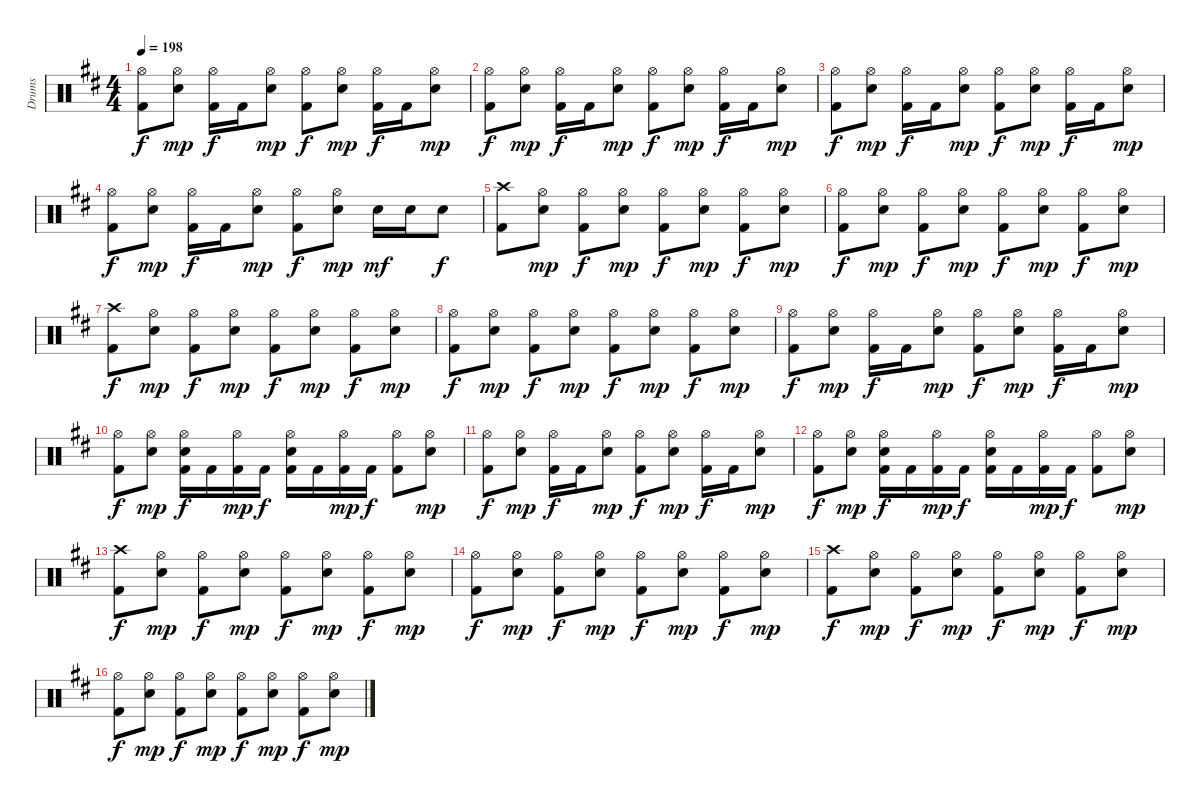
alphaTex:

\track ("Drums" "Drums") {instrument percussion}
\staff {score}
\articulation defaults
\ts (4 4)
\tempo 198
\clef neutral
\ks d
("Hi-Hat (open)" "Kick (hit) 2").8{dy f} ("Hi-Hat (open)" "Snare (hit) 2").8{dy mp} ("Hi-Hat (open)" "Kick (hit) 2").16{dy f} "Kick (hit) 2".16 ("Hi-Hat (open)" "Snare (hit) 2").8{dy mp} ("Hi-Hat (open)" "Kick (hit) 2").8{dy f} ("Hi-Hat (open)" "Snare (hit) 2").8{dy mp} ("Hi-Hat (open)" "Kick (hit) 2").16{dy f} "Kick (hit) 2".16 ("Hi-Hat (open)" "Snare (hit) 2").8{dy mp} |
("Hi-Hat (open)" "Kick (hit) 2").8{dy f} ("Hi-Hat (open)" "Snare (hit) 2").8{dy mp} ("Hi-Hat (open)" "Kick (hit) 2").16{dy f} "Kick (hit) 2".16 ("Hi-Hat (open)" "Snare (hit) 2").8{dy mp} ("Hi-Hat (open)" "Kick (hit) 2").8{dy f} ("Hi-Hat (open)" "Snare (hit) 2").8{dy mp} ("Hi-Hat (open)" "Kick (hit) 2").16{dy f} "Kick (hit) 2".16 ("Hi-Hat (open)" "Snare (hit) 2").8{dy mp} |
("Hi-Hat (open)" "Kick (hit) 2").8{dy f} ("Hi-Hat (open)" "Snare (hit) 2").8{dy mp} ("Hi-Hat (open)" "Kick (hit) 2").16{dy f} "Kick (hit) 2".16 ("Hi-Hat (open)" "Snare (hit) 2").8{dy mp} ("Hi-Hat (open)" "Kick (hit) 2").8{dy f} ("Hi-Hat (open)" "Snare (hit) 2").8{dy mp} ("Hi-Hat (open)" "Kick (hit) 2").16{dy f} "Kick (hit) 2".16 ("Hi-Hat (open)" "Snare (hit) 2").8{dy mp} |
("Hi-Hat (open)" "Kick (hit) 2").8{dy f} ("Hi-Hat (open)" "Snare (hit) 2").8{dy mp} ("Hi-Hat (open)" "Kick (hit) 2").16{dy f} "Kick (hit) 2".16 ("Hi-Hat (open)" "Snare (hit) 2").8{dy mp} ("Hi-Hat (open)" "Kick (hit) 2").8{dy f} ("Hi-Hat (open)" "Snare (hit) 2").8{dy mp} "Snare (hit) 2".16{dy mf} "Snare (hit) 2".16 "Snare (hit) 2".8{dy f} |
("Crash high (hit)" "Kick (hit) 2").8 ("Hi-Hat (open)" "Snare (hit) 2").8{dy mp} ("Hi-Hat (open)" "Kick (hit) 2").8{dy f} ("Hi-Hat (open)" "Snare (hit) 2").8{dy mp} ("Hi-Hat (open)" "Kick (hit) 2").8{dy f} ("Hi-Hat (open)" "Snare (hit) 2").8{dy mp} ("Hi-Hat (open)" "Kick (hit) 2").8{dy f} ("Hi-Hat (open)" "Snare (hit) 2").8{dy mp} |
("Hi-Hat (open)" "Kick (hit) 2").8{dy f} ("Hi-Hat (open)" "Snare (hit) 2").8{dy mp} ("Hi-Hat (open)" "Kick (hit) 2").8{dy f} ("Hi-Hat (open)" "Snare (hit) 2").8{dy mp} ("Hi-Hat (open)" "Kick (hit) 2").8{dy f} ("Hi-Hat (open)" "Snare (hit) 2").8{dy mp} ("Hi-Hat (open)" "Kick (hit) 2").8{dy f} ("Hi-Hat (open)" "Snare (hit) 2").8{dy mp} |
("Crash high (hit)" "Kick (hit) 2").8{dy f} ("Hi-Hat (open)" "Snare (hit) 2").8{dy mp} ("Hi-Hat (open)" "Kick (hit) 2").8{dy f} ("Hi-Hat (open)" "Snare (hit) 2").8{dy mp} ("Hi-Hat (open)" "Kick (hit) 2").8{dy f} ("Hi-Hat (open)" "Snare (hit) 2").8{dy mp} ("Hi-Hat (open)" "Kick (hit) 2").8{dy f} ("Hi-Hat (open)" "Snare (hit) 2").8{dy mp} |
("Hi-Hat (open)" "Kick (hit) 2").8{dy f} ("Hi-Hat (open)" "Snare (hit) 2").8{dy mp} ("Hi-Hat (open)" "Kick (hit) 2").8{dy f} ("Hi-Hat (open)" "Snare (hit) 2").8{dy mp} ("Hi-Hat (open)" "Kick (hit) 2").8{dy f} ("Hi-Hat (open)" "Snare (hit) 2").8{dy mp} ("Hi-Hat (open)" "Kick (hit) 2").8{dy f} ("Hi-Hat (open)" "Snare (hit) 2").8{dy mp} |
("Hi-Hat (open)" "Kick (hit) 2").8{dy f} ("Hi-Hat (open)" "Snare (hit) 2").8{dy mp} ("Hi-Hat (open)" "Kick (hit) 2").16{dy f} "Kick (hit) 2".16 ("Hi-Hat (open)" "Snare (hit) 2").8{dy mp} ("Hi-Hat (open)" "Kick (hit) 2").8{dy f} ("Hi-Hat (open)" "Snare (hit) 2").8{dy mp} ("Hi-Hat (open)" "Kick (hit) 2").16{dy f} "Kick (hit) 2".16 ("Hi-Hat (open)" "Snare (hit) 2").8{dy mp} |
("Hi-Hat (open)" "Kick (hit) 2").8{dy f} ("Hi-Hat (open)" "Snare (hit) 2").8{dy mp} ("Hi-Hat (open)" "Snare (hit) 2" "Kick (hit) 2").16{dy f} "Kick (hit) 2".16 ("Hi-Hat (open)" "Kick (hit) 2").16{dy mp} "Kick (hit) 2".16{dy f} ("Hi-Hat (open)" "Snare (hit) 2" "Kick (hit) 2").16 "Kick (hit) 2".16 ("Hi-Hat (open)" "Kick (hit) 2").16{dy mp} "Kick (hit) 2".16{dy f} ("Hi-Hat (open)" "Kick (hit) 2").8 ("Hi-Hat (open)" "Snare (hit) 2").8{dy mp} |
("Hi-Hat (open)" "Kick (hit) 2").8{dy f} ("Hi-Hat (open)" "Snare (hit) 2").8{dy mp} ("Hi-Hat (open)" "Kick (hit) 2").16{dy f} "Kick (hit) 2".16 ("Hi-Hat (open)" "Snare (hit) 2").8{dy mp} ("Hi-Hat (open)" "Kick (hit) 2").8{dy f} ("Hi-Hat (open)" "Snare (hit) 2").8{dy mp} ("Hi-Hat (open)" "Kick (hit) 2").16{dy f} "Kick (hit) 2".16 ("Hi-Hat (open)" "Snare (hit) 2").8{dy mp} |
("Hi-Hat (open)" "Kick (hit) 2").8{dy f} ("Hi-Hat (open)" "Snare (hit) 2").8{dy mp} ("Hi-Hat (open)" "Snare (hit) 2" "Kick (hit) 2").16{dy f} "Kick (hit) 2".16 ("Hi-Hat (open)" "Kick (hit) 2").16{dy mp} "Kick (hit) 2".16{dy f} ("Hi-Hat (open)" "Snare (hit) 2" "Kick (hit) 2").16 "Kick (hit) 2".16 ("Hi-Hat (open)" "Kick (hit) 2").16{dy mp} "Kick (hit) 2".16{dy f} ("Hi-Hat (open)" "Kick (hit) 2").8 ("Hi-Hat (open)" "Snare (hit) 2").8{dy mp} |
("Crash high (hit)" "Kick (hit) 2").8{dy f} ("Hi-Hat (open)" "Snare (hit) 2").8{dy mp} ("Hi-Hat (open)" "Kick (hit) 2").8{dy f} ("Hi-Hat (open)" "Snare (hit) 2").8{dy mp} ("Hi-Hat (open)" "Kick (hit) 2").8{dy f} ("Hi-Hat (open)" "Snare (hit) 2").8{dy mp} ("Hi-Hat (open)" "Kick (hit) 2").8{dy f} ("Hi-Hat (open)" "Snare (hit) 2").8{dy mp} |
("Hi-Hat (open)" "Kick (hit) 2").8{dy f} ("Hi-Hat (open)" "Snare (hit) 2").8{dy mp} ("Hi-Hat (open)" "Kick (hit) 2").8{dy f} ("Hi-Hat (open)" "Snare (hit) 2").8{dy mp} ("Hi-Hat (open)" "Kick (hit) 2").8{dy f} ("Hi-Hat (open)" "Snare (hit) 2").8{dy mp} ("Hi-Hat (open)" "Kick (hit) 2").8{dy f} ("Hi-Hat (open)" "Snare (hit) 2").8{dy mp} |
("Crash high (hit)" "Kick (hit) 2").8{dy f} ("Hi-Hat (open)" "Snare (hit) 2").8{dy mp} ("Hi-Hat (open)" "Kick (hit) 2").8{dy f} ("Hi-Hat (open)" "Snare (hit) 2").8{dy mp} ("Hi-Hat (open)" "Kick (hit) 2").8{dy f} ("Hi-Hat (open)" "Snare (hit) 2").8{dy mp} ("Hi-Hat (open)" "Kick (hit) 2").8{dy f} ("Hi-Hat (open)" "Snare (hit) 2").8{dy mp} |
("Hi-Hat (open)" "Kick (hit) 2").8{dy f} ("Hi-Hat (open)" "Snare (hit) 2").8{dy mp} ("Hi-Hat (open)" "Kick (hit) 2").8{dy f} ("Hi-Hat (open)" "Snare (hit) 2").8{dy mp} ("Hi-Hat (open)" "Kick (hit) 2").8{dy f} ("Hi-Hat (open)" "Snare (hit) 2").8{dy mp} ("Hi-Hat (open)" "Kick (hit) 2").8{dy f} ("Hi-Hat (open)" "Snare (hit) 2").8{dy mp}
